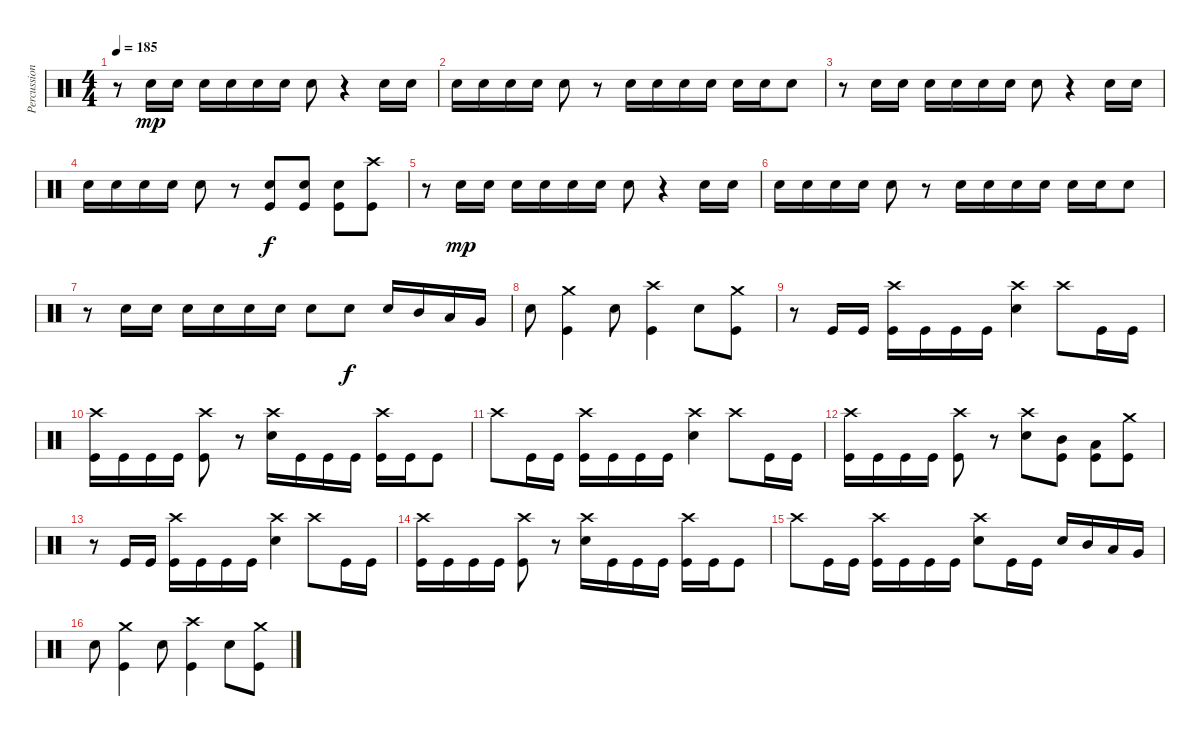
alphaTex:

\track ("Percussion" "Percussion") {instrument percussion}
\staff {score}
\articulation defaults
\ts (4 4)
\tempo 185
\clef neutral
\ks c
r.8{dy f} "Electric Snare (hit)".16{dy mp} "Electric Snare (hit)".16 "Electric Snare (hit)".16 "Electric Snare (hit)".16 "Electric Snare (hit)".16 "Electric Snare (hit)".16 "Electric Snare (hit)".8 r.4 "Electric Snare (hit)".16 "Electric Snare (hit)".16 |
"Electric Snare (hit)".16 "Electric Snare (hit)".16 "Electric Snare (hit)".16 "Electric Snare (hit)".16 "Electric Snare (hit)".8 r.8 "Electric Snare (hit)".16 "Electric Snare (hit)".16 "Electric Snare (hit)".16 "Electric Snare (hit)".16 "Electric Snare (hit)".16 "Electric Snare (hit)".16 "Electric Snare (hit)".8 |
r.8 "Electric Snare (hit)".16 "Electric Snare (hit)".16 "Electric Snare (hit)".16 "Electric Snare (hit)".16 "Electric Snare (hit)".16 "Electric Snare (hit)".16 "Electric Snare (hit)".8 r.4 "Electric Snare (hit)".16 "Electric Snare (hit)".16 |
"Electric Snare (hit)".16 "Electric Snare (hit)".16 "Electric Snare (hit)".16 "Electric Snare (hit)".16 "Electric Snare (hit)".8 r.8 ("Electric Snare (hit)" "Kick (hit)").8{dy f} ("Electric Snare (hit)" "Kick (hit)").8 ("Electric Snare (hit)" "Kick (hit)").8 ("Crash high (hit)" "Kick (hit)").8 |
r.8 "Electric Snare (hit)".16{dy mp} "Electric Snare (hit)".16 "Electric Snare (hit)".16 "Electric Snare (hit)".16 "Electric Snare (hit)".16 "Electric Snare (hit)".16 "Electric Snare (hit)".8 r.4 "Electric Snare (hit)".16 "Electric Snare (hit)".16 |
"Electric Snare (hit)".16 "Electric Snare (hit)".16 "Electric Snare (hit)".16 "Electric Snare (hit)".16 "Electric Snare (hit)".8 r.8 "Electric Snare (hit)".16 "Electric Snare (hit)".16 "Electric Snare (hit)".16 "Electric Snare (hit)".16 "Electric Snare (hit)".16 "Electric Snare (hit)".16 "Electric Snare (hit)".8 |
r.8 "Electric Snare (hit)".16 "Electric Snare (hit)".16 "Electric Snare (hit)".16 "Electric Snare (hit)".16 "Electric Snare (hit)".16 "Electric Snare (hit)".16 "Electric Snare (hit)".8 "Electric Snare (hit)".8{dy f} "Electric Snare (hit)".16 "Mid Tom (hit)".16 "Low Tom (hit)".16 "Very Low Tom (hit)".16 |
"Electric Snare (hit)".8 ("Crash medium (hit)" "Kick (hit)").4 "Electric Snare (hit)".8 ("Crash high (hit)" "Kick (hit)").4 "Electric Snare (hit)".8 ("Crash medium (hit)" "Kick (hit)").8 |
r.8 "Kick (hit)".16 "Kick (hit)".16 ("Crash high (hit)" "Kick (hit)").16 "Kick (hit)".16 "Kick (hit)".16 "Kick (hit)".16 ("Crash high (hit)" "Electric Snare (hit)").4 "Crash high (hit)".8 "Kick (hit)".16 "Kick (hit)".16 |
("Crash high (hit)" "Kick (hit)").16 "Kick (hit)".16 "Kick (hit)".16 "Kick (hit)".16 ("Crash high (hit)" "Kick (hit)").8 r.8 ("Crash high (hit)" "Electric Snare (hit)").16 "Kick (hit)".16 "Kick (hit)".16 "Kick (hit)".16 ("Crash high (hit)" "Kick (hit)").16 "Kick (hit)".16 "Kick (hit)".8 |
"Crash high (hit)".8 "Kick (hit)".16 "Kick (hit)".16 ("Crash high (hit)" "Kick (hit)").16 "Kick (hit)".16 "Kick (hit)".16 "Kick (hit)".16 ("Crash high (hit)" "Electric Snare (hit)").4 "Crash high (hit)".8 "Kick (hit)".16 "Kick (hit)".16 |
("Crash high (hit)" "Kick (hit)").16 "Kick (hit)".16 "Kick (hit)".16 "Kick (hit)".16 ("Crash high (hit)" "Kick (hit)").8 r.8 ("Crash high (hit)" "Electric Snare (hit)").8 ("Mid Tom (hit)" "Kick (hit)").8 ("Low Tom (hit)" "Kick (hit)").8 ("Crash medium (hit)" "Kick (hit)").8 |
r.8 "Kick (hit)".16 "Kick (hit)".16 ("Crash high (hit)" "Kick (hit)").16 "Kick (hit)".16 "Kick (hit)".16 "Kick (hit)".16 ("Crash high (hit)" "Electric Snare (hit)").4 "Crash high (hit)".8 "Kick (hit)".16 "Kick (hit)".16 |
("Crash high (hit)" "Kick (hit)").16 "Kick (hit)".16 "Kick (hit)".16 "Kick (hit)".16 ("Crash high (hit)" "Kick (hit)").8 r.8 ("Crash high (hit)" "Electric Snare (hit)").16 "Kick (hit)".16 "Kick (hit)".16 "Kick (hit)".16 ("Crash high (hit)" "Kick (hit)").16 "Kick (hit)".16 "Kick (hit)".8 |
"Crash high (hit)".8 "Kick (hit)".16 "Kick (hit)".16 ("Crash high (hit)" "Kick (hit)").16 "Kick (hit)".16 "Kick (hit)".16 "Kick (hit)".16 ("Crash high (hit)" "Electric Snare (hit)").8 "Kick (hit)".16 "Kick (hit)".16 "Electric Snare (hit)".16 "Mid Tom (hit)".16 "Low Tom (hit)".16 "Very Low Tom (hit)".16 |
"Electric Snare (hit)".8 ("Crash medium (hit)" "Kick (hit)").4 "Electric Snare (hit)".8 ("Crash high (hit)" "Kick (hit)").4 "Electric Snare (hit)".8 ("Crash medium (hit)" "Kick (hit)").8
